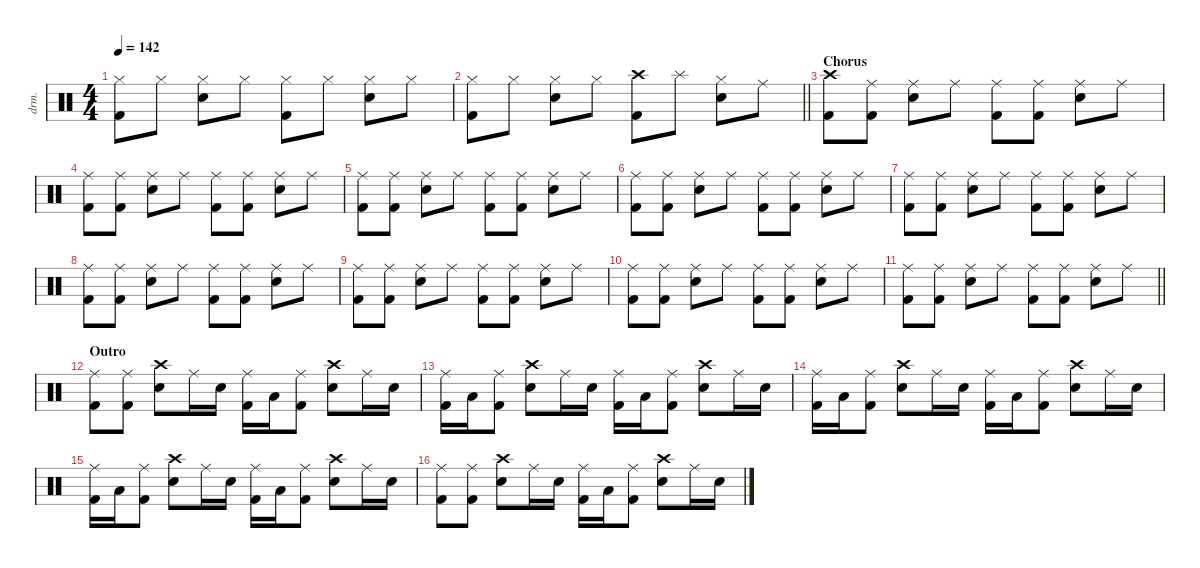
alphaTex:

\defaultSystemsLayout 4
\hideDynamics
\bracketExtendMode nobrackets
\otherSystemsTrackNameOrientation horizontal
\track ("Drums" "drm.") {defaultSystemsLayout 4 instrument percussion}
\staff {score}
\articulation defaults
\ts (4 4)
\tempo 142
\clef neutral
\ks c
("Hi-Hat (closed)" "Kick (hit) 2").8{dy f beam Down} "Hi-Hat (closed)".8{beam Down} ("Hi-Hat (closed)" "Snare (hit) 2").8{beam Down} "Hi-Hat (closed)".8{beam Down} ("Hi-Hat (closed)" "Kick (hit) 2").8{beam Down} "Hi-Hat (closed)".8{beam Down} ("Hi-Hat (closed)" "Snare (hit) 2").8{beam Down} "Hi-Hat (closed)".8{beam Down} |
\barLineRight lightlight
("Hi-Hat (closed)" "Kick (hit) 2").8{beam Down} "Hi-Hat (closed)".8{beam Down} ("Hi-Hat (closed)" "Snare (hit) 2").8{beam Down} "Hi-Hat (closed)".8{beam Down} ("Crash high (hit)" "Kick (hit) 2").8{beam Down} "Splash (hit)".8{beam Down} ("Hi-Hat (closed)" "Snare (hit) 2").8{beam Down} "Ride (middle)".8{beam Down} |
\section ("" "Chorus")
("Crash high (hit)" "Kick (hit) 2").8{beam Down} ("Ride (middle)" "Kick (hit) 2").8{beam Down} ("Ride (middle)" "Snare (hit) 2").8{beam Down} "Ride (middle)".8{beam Down} ("Ride (middle)" "Kick (hit) 2").8{beam Down} ("Ride (middle)" "Kick (hit) 2").8{beam Down} ("Ride (middle)" "Snare (hit) 2").8{beam Down} "Ride (middle)".8{beam Down} |
("Ride (middle)" "Kick (hit) 2").8{beam Down} ("Ride (middle)" "Kick (hit) 2").8{beam Down} ("Ride (middle)" "Snare (hit) 2").8{beam Down} "Ride (middle)".8{beam Down} ("Ride (middle)" "Kick (hit) 2").8{beam Down} ("Ride (middle)" "Kick (hit) 2").8{beam Down} ("Ride (middle)" "Snare (hit) 2").8{beam Down} "Ride (middle)".8{beam Down} |
("Ride (middle)" "Kick (hit) 2").8{beam Down} ("Ride (middle)" "Kick (hit) 2").8{beam Down} ("Ride (middle)" "Snare (hit) 2").8{beam Down} "Ride (middle)".8{beam Down} ("Ride (middle)" "Kick (hit) 2").8{beam Down} ("Ride (middle)" "Kick (hit) 2").8{beam Down} ("Ride (middle)" "Snare (hit) 2").8{beam Down} "Ride (middle)".8{beam Down} |
("Ride (middle)" "Kick (hit) 2").8{beam Down} ("Ride (middle)" "Kick (hit) 2").8{beam Down} ("Ride (middle)" "Snare (hit) 2").8{beam Down} "Ride (middle)".8{beam Down} ("Ride (middle)" "Kick (hit) 2").8{beam Down} ("Ride (middle)" "Kick (hit) 2").8{beam Down} ("Ride (middle)" "Snare (hit) 2").8{beam Down} "Ride (middle)".8{beam Down} |
("Ride (middle)" "Kick (hit) 2").8{beam Down} ("Ride (middle)" "Kick (hit) 2").8{beam Down} ("Ride (middle)" "Snare (hit) 2").8{beam Down} "Ride (middle)".8{beam Down} ("Ride (middle)" "Kick (hit) 2").8{beam Down} ("Ride (middle)" "Kick (hit) 2").8{beam Down} ("Ride (middle)" "Snare (hit) 2").8{beam Down} "Ride (middle)".8{beam Down} |
("Ride (middle)" "Kick (hit) 2").8{beam Down} ("Ride (middle)" "Kick (hit) 2").8{beam Down} ("Ride (middle)" "Snare (hit) 2").8{beam Down} "Ride (middle)".8{beam Down} ("Ride (middle)" "Kick (hit) 2").8{beam Down} ("Ride (middle)" "Kick (hit) 2").8{beam Down} ("Ride (middle)" "Snare (hit) 2").8{beam Down} "Ride (middle)".8{beam Down} |
("Ride (middle)" "Kick (hit) 2").8{beam Down} ("Ride (middle)" "Kick (hit) 2").8{beam Down} ("Ride (middle)" "Snare (hit) 2").8{beam Down} "Ride (middle)".8{beam Down} ("Ride (middle)" "Kick (hit) 2").8{beam Down} ("Ride (middle)" "Kick (hit) 2").8{beam Down} ("Ride (middle)" "Snare (hit) 2").8{beam Down} "Ride (middle)".8{beam Down} |
("Ride (middle)" "Kick (hit) 2").8{beam Down} ("Ride (middle)" "Kick (hit) 2").8{beam Down} ("Ride (middle)" "Snare (hit) 2").8{beam Down} "Ride (middle)".8{beam Down} ("Ride (middle)" "Kick (hit) 2").8{beam Down} ("Ride (middle)" "Kick (hit) 2").8{beam Down} ("Ride (middle)" "Snare (hit) 2").8{beam Down} "Ride (middle)".8{beam Down} |
\barLineRight lightlight
("Ride (middle)" "Kick (hit) 2").8{beam Down} ("Ride (middle)" "Kick (hit) 2").8{beam Down} ("Ride (middle)" "Snare (hit) 2").8{beam Down} "Ride (middle)".8{beam Down} ("Ride (middle)" "Kick (hit) 2").8{beam Down} ("Ride (middle)" "Kick (hit) 2").8{beam Down} ("Ride (middle)" "Snare (hit) 2").8{beam Down} "Ride (middle)".8{beam Down} |
\section ("" "Outro")
("Ride (middle)" "Kick (hit) 2").8{beam Down} ("Ride (middle)" "Kick (hit) 2").8{beam Down} ("Crash high (hit)" "Snare (hit) 2").8{beam Down} "Ride (middle)".16{beam Down} "Snare (hit) 2".16{beam Down} ("Ride (middle)" "Kick (hit) 2").16{beam Down} "Low Tom (hit)".16{beam Down} ("Ride (middle)" "Kick (hit) 2").8{beam Down} ("Crash high (hit)" "Snare (hit) 2").8{beam Down} "Ride (middle)".16{beam Down} "Snare (hit) 2".16{beam Down} |
("Ride (middle)" "Kick (hit) 2").16{beam Down} "Low Tom (hit)".16{beam Down} ("Ride (middle)" "Kick (hit) 2").8{beam Down} ("Crash high (hit)" "Snare (hit) 2").8{beam Down} "Ride (middle)".16{beam Down} "Snare (hit) 2".16{beam Down} ("Ride (middle)" "Kick (hit) 2").16{beam Down} "Low Tom (hit)".16{beam Down} ("Ride (middle)" "Kick (hit) 2").8{beam Down} ("Crash high (hit)" "Snare (hit) 2").8{beam Down} "Ride (middle)".16{beam Down} "Snare (hit) 2".16{beam Down} |
("Ride (middle)" "Kick (hit) 2").16{beam Down} "Low Tom (hit)".16{beam Down} ("Ride (middle)" "Kick (hit) 2").8{beam Down} ("Crash high (hit)" "Snare (hit) 2").8{beam Down} "Ride (middle)".16{beam Down} "Snare (hit) 2".16{beam Down} ("Ride (middle)" "Kick (hit) 2").16{beam Down} "Low Tom (hit)".16{beam Down} ("Ride (middle)" "Kick (hit) 2").8{beam Down} ("Crash high (hit)" "Snare (hit) 2").8{beam Down} "Ride (middle)".16{beam Down} "Snare (hit) 2".16{beam Down} |
("Ride (middle)" "Kick (hit) 2").16{beam Down} "Low Tom (hit)".16{beam Down} ("Ride (middle)" "Kick (hit) 2").8{beam Down} ("Crash high (hit)" "Snare (hit) 2").8{beam Down} "Ride (middle)".16{beam Down} "Snare (hit) 2".16{beam Down} ("Ride (middle)" "Kick (hit) 2").16{beam Down} "Low Tom (hit)".16{beam Down} ("Ride (middle)" "Kick (hit) 2").8{beam Down} ("Crash high (hit)" "Snare (hit) 2").8{beam Down} "Ride (middle)".16{beam Down} "Snare (hit) 2".16{beam Down} |
("Ride (middle)" "Kick (hit) 2").8{beam Down} ("Ride (middle)" "Kick (hit) 2").8{beam Down} ("Crash high (hit)" "Snare (hit) 2").8{beam Down} "Ride (middle)".16{beam Down} "Snare (hit) 2".16{beam Down} ("Ride (middle)" "Kick (hit) 2").16{beam Down} "Low Tom (hit)".16{beam Down} ("Ride (middle)" "Kick (hit) 2").8{beam Down} ("Crash high (hit)" "Snare (hit) 2").8{beam Down} "Ride (middle)".16{beam Down} "Snare (hit) 2".16{beam Down}
